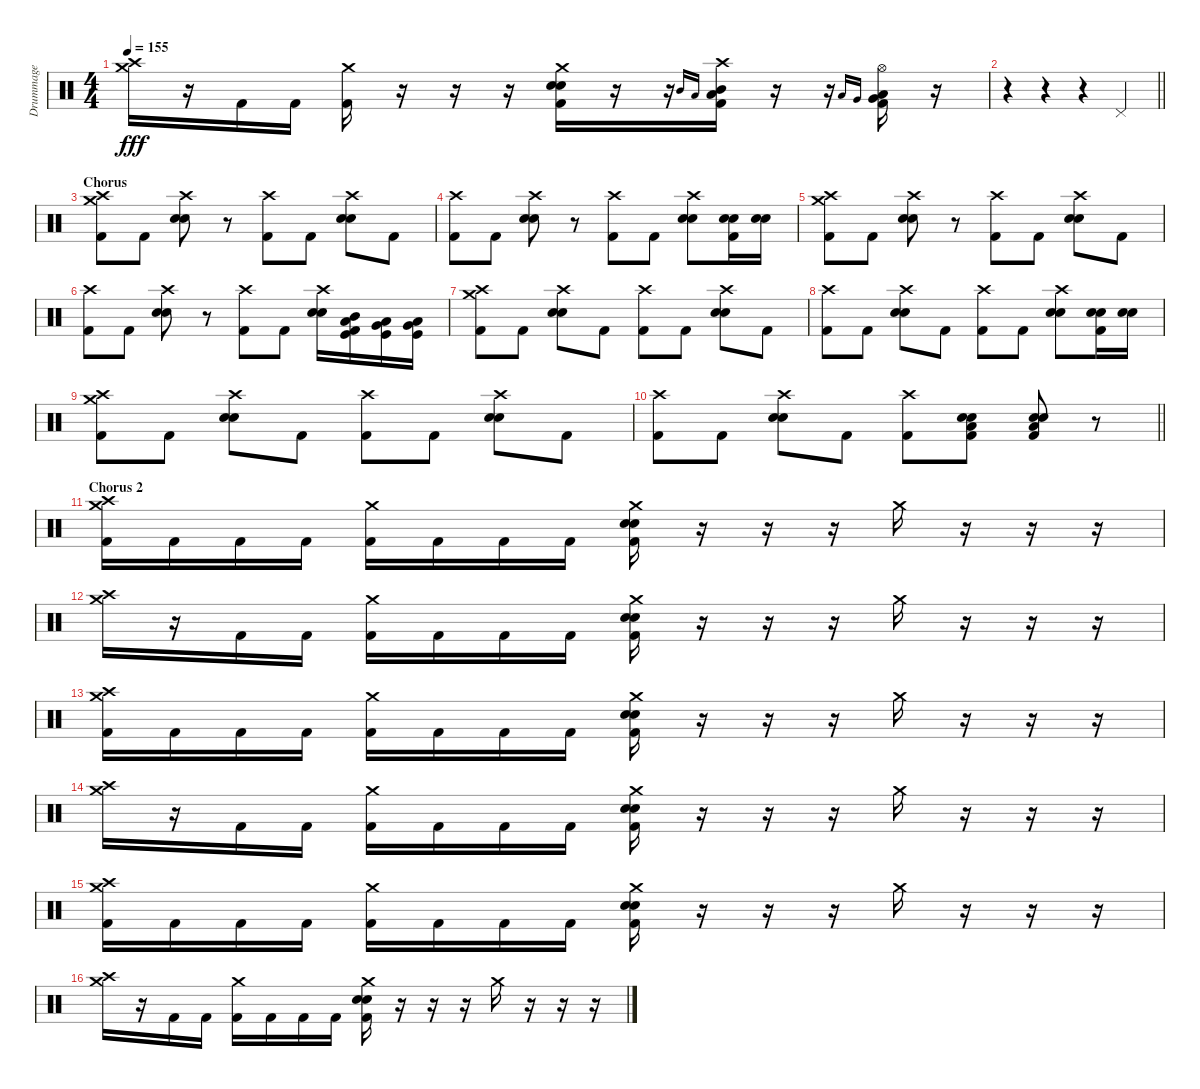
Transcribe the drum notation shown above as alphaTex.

\track ("Drummage" "Drummage") {instrument percussion}
\staff {score}
\articulation defaults
\ts (4 4)
\tempo 155
\clef neutral
\ks c
("Crash high (hit)" "Crash medium (hit)").16{dy fff} r.16 "Kick (hit) 2".16 "Kick (hit) 2".16 ("Crash medium (hit)" "Kick (hit) 2").16 r.16 r.16 r.16 ("Crash medium (hit)" "Snare (hit) 2" "Electric Snare (hit)" "Kick (hit) 2").16 r.16 r.16 "Mid Tom (hit)".16{gr onbeat} "Low Tom (hit)".16{gr onbeat} ("Crash high (hit)" "Mid Tom (hit)" "Low Tom (hit)" "Kick (hit) 2").16 r.16 r.16 "Low Tom (hit)".16{gr onbeat} "Very Low Tom (hit)".16{gr onbeat} ("Hi-Hat (open)" "Low Tom (hit)" "Very Low Tom (hit)" "Kick (hit) 2").16 r.16 |
\barLineRight lightlight
r.4 r.4 r.4 "Pedal Hi-Hat (hit)".4 |
\section ("" "Chorus")
("Crash medium (hit)" "Crash high (hit)" "Kick (hit) 2").8 "Kick (hit) 2".8 ("Crash high (hit)" "Snare (hit) 2" "Electric Snare (hit)").8 r.8 ("Crash high (hit)" "Kick (hit) 2").8 "Kick (hit) 2".8 ("Crash high (hit)" "Snare (hit) 2" "Electric Snare (hit)").8 "Kick (hit) 2".8 |
("Crash high (hit)" "Kick (hit) 2").8 "Kick (hit) 2".8 ("Crash high (hit)" "Snare (hit) 2" "Electric Snare (hit)").8 r.8 ("Crash high (hit)" "Kick (hit) 2").8 "Kick (hit) 2".8 ("Crash high (hit)" "Snare (hit) 2" "Electric Snare (hit)").8 ("Snare (hit) 2" "Electric Snare (hit)" "Kick (hit) 2").16 ("Snare (hit) 2" "Electric Snare (hit)").16 |
("Crash medium (hit)" "Crash high (hit)" "Kick (hit) 2").8 "Kick (hit) 2".8 ("Crash high (hit)" "Snare (hit) 2" "Electric Snare (hit)").8 r.8 ("Crash high (hit)" "Kick (hit) 2").8 "Kick (hit) 2".8 ("Crash high (hit)" "Snare (hit) 2" "Electric Snare (hit)").8 "Kick (hit) 2".8 |
("Crash high (hit)" "Kick (hit) 2").8 "Kick (hit) 2".8 ("Crash high (hit)" "Snare (hit) 2" "Electric Snare (hit)").8 r.8 ("Crash high (hit)" "Kick (hit) 2").8 "Kick (hit) 2".8 ("Crash high (hit)" "Snare (hit) 2" "Electric Snare (hit)").16 ("Low Tom (hit)" "Mid Tom (hit)" "Kick (hit)" "Kick (hit) 2").16 ("Very Low Tom (hit)" "Low Tom (hit)" "Kick (hit)").16 ("Low Floor Tom (hit)" "Very Low Tom (hit)" "Kick (hit)").16 |
("Crash medium (hit)" "Crash high (hit)" "Kick (hit) 2").8 "Kick (hit) 2".8 ("Crash high (hit)" "Snare (hit) 2" "Electric Snare (hit)").8 "Kick (hit) 2".8 ("Crash high (hit)" "Kick (hit) 2").8 "Kick (hit) 2".8 ("Crash high (hit)" "Snare (hit) 2" "Electric Snare (hit)").8 "Kick (hit) 2".8 |
("Crash high (hit)" "Kick (hit) 2").8 "Kick (hit) 2".8 ("Crash high (hit)" "Snare (hit) 2" "Electric Snare (hit)").8 "Kick (hit) 2".8 ("Crash high (hit)" "Kick (hit) 2").8 "Kick (hit) 2".8 ("Crash high (hit)" "Snare (hit) 2" "Electric Snare (hit)").8 ("Snare (hit) 2" "Electric Snare (hit)" "Kick (hit) 2").16 ("Snare (hit) 2" "Electric Snare (hit)").16 |
("Crash medium (hit)" "Crash high (hit)" "Kick (hit) 2").8 "Kick (hit) 2".8 ("Crash high (hit)" "Snare (hit) 2" "Electric Snare (hit)").8 "Kick (hit) 2".8 ("Crash high (hit)" "Kick (hit) 2").8 "Kick (hit) 2".8 ("Crash high (hit)" "Snare (hit) 2" "Electric Snare (hit)").8 "Kick (hit) 2".8 |
\barLineRight lightlight
("Crash high (hit)" "Kick (hit) 2").8 "Kick (hit) 2".8 ("Crash high (hit)" "Snare (hit) 2" "Electric Snare (hit)").8 "Kick (hit) 2".8 ("Crash high (hit)" "Kick (hit) 2").8 ("Snare (hit) 2" "Electric Snare (hit)" "Low Floor Tom (hit)" "Kick (hit) 2").8 ("Snare (hit) 2" "Electric Snare (hit)" "Low Floor Tom (hit)" "Kick (hit) 2").8 r.8 |
\section ("" "Chorus 2")
("Crash high (hit)" "Crash medium (hit)" "Kick (hit) 2").16 "Kick (hit) 2".16 "Kick (hit) 2".16 "Kick (hit) 2".16 ("Crash medium (hit)" "Kick (hit) 2").16 "Kick (hit) 2".16 "Kick (hit) 2".16 "Kick (hit) 2".16 ("Crash medium (hit)" "Electric Snare (hit)" "Snare (hit) 2" "Kick (hit) 2").16 r.16 r.16 r.16 "Crash medium (hit)".16 r.16 r.16 r.16 |
("Crash high (hit)" "Crash medium (hit)").16 r.16 "Kick (hit) 2".16 "Kick (hit) 2".16 ("Crash medium (hit)" "Kick (hit) 2").16 "Kick (hit) 2".16 "Kick (hit) 2".16 "Kick (hit) 2".16 ("Crash medium (hit)" "Electric Snare (hit)" "Snare (hit) 2" "Kick (hit) 2").16 r.16 r.16 r.16 "Crash medium (hit)".16 r.16 r.16 r.16 |
("Crash high (hit)" "Crash medium (hit)" "Kick (hit) 2").16 "Kick (hit) 2".16 "Kick (hit) 2".16 "Kick (hit) 2".16 ("Crash medium (hit)" "Kick (hit) 2").16 "Kick (hit) 2".16 "Kick (hit) 2".16 "Kick (hit) 2".16 ("Crash medium (hit)" "Electric Snare (hit)" "Snare (hit) 2" "Kick (hit) 2").16 r.16 r.16 r.16 "Crash medium (hit)".16 r.16 r.16 r.16 |
("Crash high (hit)" "Crash medium (hit)").16 r.16 "Kick (hit) 2".16 "Kick (hit) 2".16 ("Crash medium (hit)" "Kick (hit) 2").16 "Kick (hit) 2".16 "Kick (hit) 2".16 "Kick (hit) 2".16 ("Crash medium (hit)" "Electric Snare (hit)" "Snare (hit) 2" "Kick (hit) 2").16 r.16 r.16 r.16 "Crash medium (hit)".16 r.16 r.16 r.16 |
("Crash high (hit)" "Crash medium (hit)" "Kick (hit) 2").16 "Kick (hit) 2".16 "Kick (hit) 2".16 "Kick (hit) 2".16 ("Crash medium (hit)" "Kick (hit) 2").16 "Kick (hit) 2".16 "Kick (hit) 2".16 "Kick (hit) 2".16 ("Crash medium (hit)" "Electric Snare (hit)" "Snare (hit) 2" "Kick (hit) 2").16 r.16 r.16 r.16 "Crash medium (hit)".16 r.16 r.16 r.16 |
("Crash high (hit)" "Crash medium (hit)").16 r.16 "Kick (hit) 2".16 "Kick (hit) 2".16 ("Crash medium (hit)" "Kick (hit) 2").16 "Kick (hit) 2".16 "Kick (hit) 2".16 "Kick (hit) 2".16 ("Crash medium (hit)" "Electric Snare (hit)" "Snare (hit) 2" "Kick (hit) 2").16 r.16 r.16 r.16 "Crash medium (hit)".16 r.16 r.16 r.16
